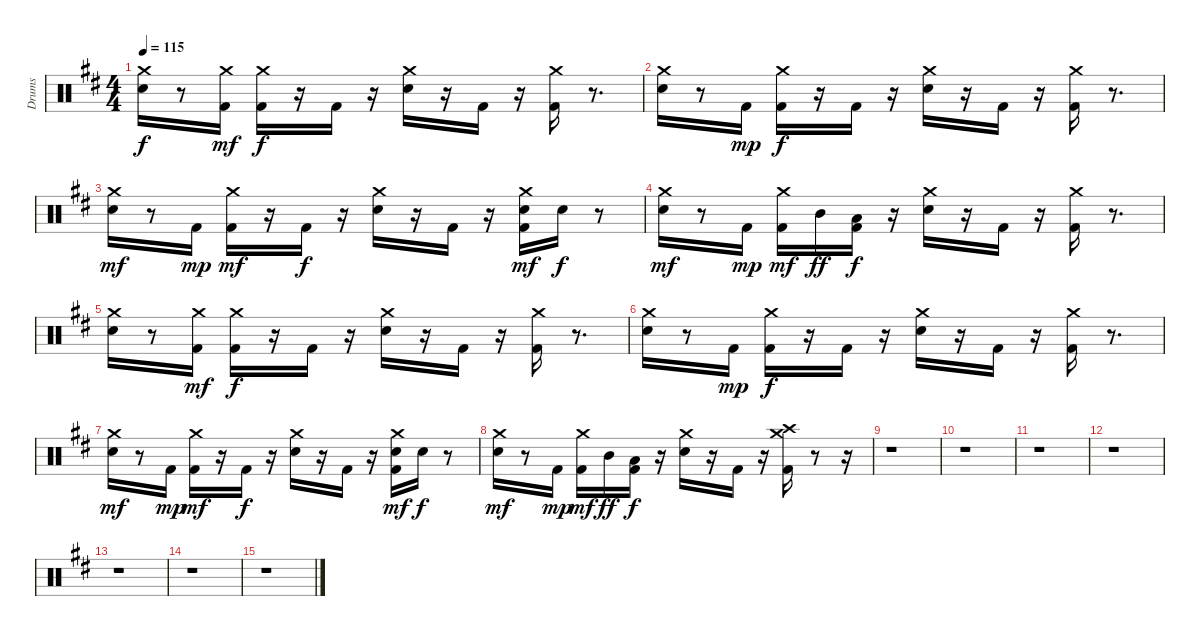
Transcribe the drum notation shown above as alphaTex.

\track ("Drums" "Drums") {instrument percussion}
\staff {score}
\articulation defaults
\ts (4 4)
\tempo 115
\clef neutral
\ks d
("Crash medium (hit)" "Snare (hit) 2").16{dy f} r.8 ("Kick (hit) 2" "Crash medium (hit)").16{dy mf} ("Kick (hit) 2" "Crash medium (hit)").16{dy f} r.16 "Kick (hit) 2".16 r.16 ("Crash medium (hit)" "Snare (hit) 2").16 r.16 "Kick (hit) 2".16 r.16 ("Kick (hit) 2" "Crash medium (hit)").16 r.8{d} |
("Crash medium (hit)" "Snare (hit) 2").16 r.8 "Kick (hit) 2".16{dy mp} ("Kick (hit) 2" "Crash medium (hit)").16{dy f} r.16 "Kick (hit) 2".16 r.16 ("Crash medium (hit)" "Snare (hit) 2").16 r.16 "Kick (hit) 2".16 r.16 ("Kick (hit) 2" "Crash medium (hit)").16 r.8{d} |
("Crash medium (hit)" "Snare (hit) 2").16{dy mf} r.8 "Kick (hit) 2".16{dy mp} ("Kick (hit) 2" "Crash medium (hit)").16{dy mf} r.16 "Kick (hit) 2".16{dy f} r.16 ("Crash medium (hit)" "Snare (hit) 2").16 r.16 "Kick (hit) 2".16 r.16 ("Kick (hit) 2" "Crash medium (hit)" "Snare (hit) 2").16{dy mf} "Snare (hit) 2".16{dy f} r.8 |
("Snare (hit) 2" "Crash medium (hit)").16{dy mf} r.8 "Kick (hit) 2".16{dy mp} ("Kick (hit) 2" "Crash medium (hit)").16{dy mf} "Mid Tom (hit)".16{dy ff} ("Kick (hit) 2" "Low Tom (hit)").16{dy f} r.16 ("Snare (hit) 2" "Crash medium (hit)").16 r.16 "Kick (hit) 2".16 r.16 ("Kick (hit) 2" "Crash medium (hit)").16 r.8{d} |
("Snare (hit) 2" "Crash medium (hit)").16 r.8 ("Kick (hit) 2" "Crash medium (hit)").16{dy mf} ("Kick (hit) 2" "Crash medium (hit)").16{dy f} r.16 "Kick (hit) 2".16 r.16 ("Snare (hit) 2" "Crash medium (hit)").16 r.16 "Kick (hit) 2".16 r.16 ("Kick (hit) 2" "Crash medium (hit)").16 r.8{d} |
("Crash medium (hit)" "Snare (hit) 2").16 r.8 "Kick (hit) 2".16{dy mp} ("Kick (hit) 2" "Crash medium (hit)").16{dy f} r.16 "Kick (hit) 2".16 r.16 ("Crash medium (hit)" "Snare (hit) 2").16 r.16 "Kick (hit) 2".16 r.16 ("Kick (hit) 2" "Crash medium (hit)").16 r.8{d} |
("Crash medium (hit)" "Snare (hit) 2").16{dy mf} r.8 "Kick (hit) 2".16{dy mp} ("Kick (hit) 2" "Crash medium (hit)").16{dy mf} r.16 "Kick (hit) 2".16{dy f} r.16 ("Snare (hit) 2" "Crash medium (hit)").16 r.16 "Kick (hit) 2".16 r.16 ("Kick (hit) 2" "Snare (hit) 2" "Crash medium (hit)").16{dy mf} "Snare (hit) 2".16{dy f} r.8 |
("Crash medium (hit)" "Snare (hit) 2").16{dy mf} r.8 "Kick (hit) 2".16{dy mp} ("Kick (hit) 2" "Crash medium (hit)").16{dy mf} "Mid Tom (hit)".16{dy ff} ("Kick (hit) 2" "Low Tom (hit)").16{dy f} r.16 ("Crash medium (hit)" "Snare (hit) 2").16 r.16 "Kick (hit) 2".16 r.16 ("Kick (hit) 2" "Crash medium (hit)" "Crash high (hit)").16 r.8 r.16 |
r.1 |
r.1 |
r.1 |
r.1 |
r.1 |
r.1 |
r.1
